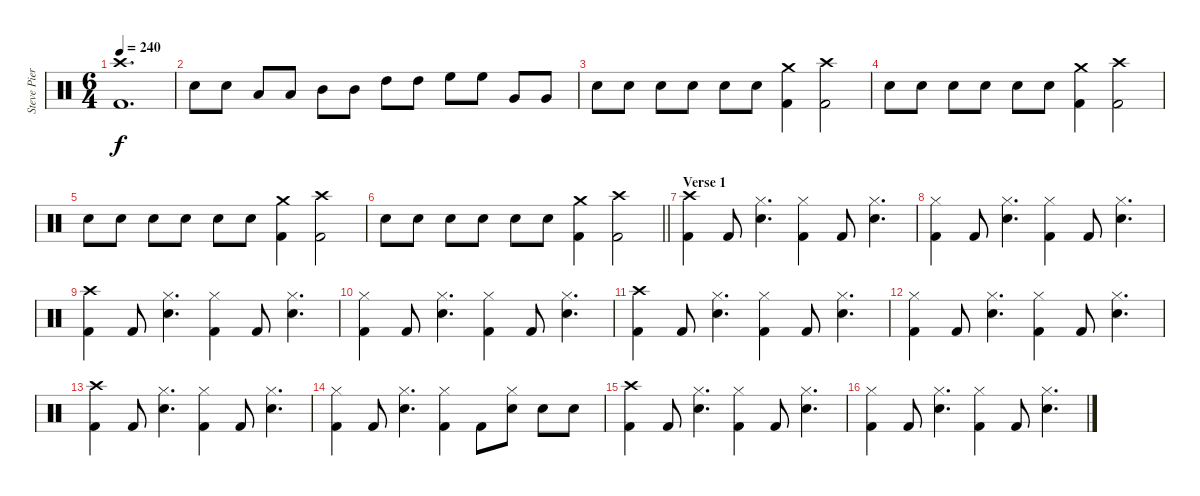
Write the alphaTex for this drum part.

\track ("Steve Pierce" "Steve Pier") {instrument percussion}
\staff {score}
\articulation defaults
\ts (6 4)
\tempo 240
\clef neutral
\ks c
("Crash high (hit)" "Kick (hit) 2").1{d dy f} |
"Snare (hit) 2".8 "Snare (hit) 2".8 "Low Tom (hit)".8 "Low Tom (hit)".8 "Mid Tom (hit)".8 "Mid Tom (hit)".8 "High Tom (hit)".8 "High Tom (hit)".8 "High Floor Tom (hit)".8 "High Floor Tom (hit)".8 "Very Low Tom (hit)".8 "Very Low Tom (hit)".8 |
"Snare (hit) 2".8 "Snare (hit) 2".8 "Snare (hit) 2".8 "Snare (hit) 2".8 "Snare (hit) 2".8 "Snare (hit) 2".8 ("Crash medium (hit)" "Kick (hit) 2").4 ("Crash high (hit)" "Kick (hit) 2").2 |
"Snare (hit) 2".8 "Snare (hit) 2".8 "Snare (hit) 2".8 "Snare (hit) 2".8 "Snare (hit) 2".8 "Snare (hit) 2".8 ("Crash medium (hit)" "Kick (hit) 2").4 ("Crash high (hit)" "Kick (hit) 2").2 |
"Snare (hit) 2".8 "Snare (hit) 2".8 "Snare (hit) 2".8 "Snare (hit) 2".8 "Snare (hit) 2".8 "Snare (hit) 2".8 ("Crash medium (hit)" "Kick (hit) 2").4 ("Crash high (hit)" "Kick (hit) 2").2 |
\barLineRight lightlight "Snare (hit) 2".8 "Snare (hit) 2".8 "Snare (hit) 2".8 "Snare (hit) 2".8 "Snare (hit) 2".8 "Snare (hit) 2".8
("Crash medium (hit)" "Kick (hit) 2").4 ("Crash high (hit)" "Kick (hit) 2").2 |
\section ("" "Verse 1")
("Crash high (hit)" "Kick (hit) 2").4 "Kick (hit) 2".8 ("Hi-Hat (closed)" "Snare (hit) 2").4{d} ("Hi-Hat (closed)" "Kick (hit) 2").4 "Kick (hit) 2".8 ("Hi-Hat (closed)" "Snare (hit) 2").4{d} |
("Hi-Hat (closed)" "Kick (hit) 2").4 "Kick (hit) 2".8 ("Hi-Hat (closed)" "Snare (hit) 2").4{d} ("Hi-Hat (closed)" "Kick (hit) 2").4 "Kick (hit) 2".8 ("Hi-Hat (closed)" "Snare (hit) 2").4{d} |
("Crash high (hit)" "Kick (hit) 2").4 "Kick (hit) 2".8 ("Hi-Hat (closed)" "Snare (hit) 2").4{d} ("Hi-Hat (closed)" "Kick (hit) 2").4 "Kick (hit) 2".8 ("Hi-Hat (closed)" "Snare (hit) 2").4{d} |
("Hi-Hat (closed)" "Kick (hit) 2").4 "Kick (hit) 2".8 ("Hi-Hat (closed)" "Snare (hit) 2").4{d} ("Hi-Hat (closed)" "Kick (hit) 2").4 "Kick (hit) 2".8 ("Hi-Hat (closed)" "Snare (hit) 2").4{d} |
("Crash high (hit)" "Kick (hit) 2").4 "Kick (hit) 2".8 ("Hi-Hat (closed)" "Snare (hit) 2").4{d} ("Hi-Hat (closed)" "Kick (hit) 2").4 "Kick (hit) 2".8 ("Hi-Hat (closed)" "Snare (hit) 2").4{d} |
("Hi-Hat (closed)" "Kick (hit) 2").4 "Kick (hit) 2".8 ("Hi-Hat (closed)" "Snare (hit) 2").4{d} ("Hi-Hat (closed)" "Kick (hit) 2").4 "Kick (hit) 2".8 ("Hi-Hat (closed)" "Snare (hit) 2").4{d} |
("Crash high (hit)" "Kick (hit) 2").4 "Kick (hit) 2".8 ("Hi-Hat (closed)" "Snare (hit) 2").4{d} ("Hi-Hat (closed)" "Kick (hit) 2").4 "Kick (hit) 2".8 ("Hi-Hat (closed)" "Snare (hit) 2").4{d} |
("Hi-Hat (closed)" "Kick (hit) 2").4 "Kick (hit) 2".8 ("Hi-Hat (closed)" "Snare (hit) 2").4{d} ("Hi-Hat (closed)" "Kick (hit) 2").4 "Kick (hit) 2".8 ("Hi-Hat (closed)" "Snare (hit) 2").8 "Snare (hit) 2".8 "Snare (hit) 2".8 |
("Crash high (hit)" "Kick (hit) 2").4 "Kick (hit) 2".8 ("Hi-Hat (closed)" "Snare (hit) 2").4{d} ("Hi-Hat (closed)" "Kick (hit) 2").4 "Kick (hit) 2".8 ("Hi-Hat (closed)" "Snare (hit) 2").4{d} |
("Hi-Hat (closed)" "Kick (hit) 2").4 "Kick (hit) 2".8 ("Hi-Hat (closed)" "Snare (hit) 2").4{d} ("Hi-Hat (closed)" "Kick (hit) 2").4 "Kick (hit) 2".8 ("Hi-Hat (closed)" "Snare (hit) 2").4{d}
